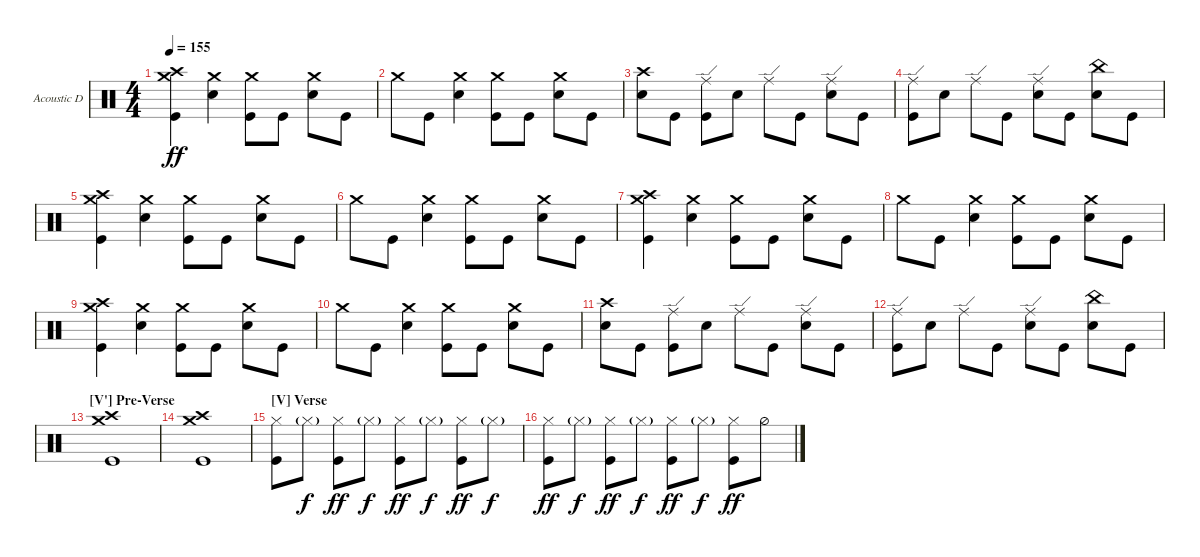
\defaultSystemsLayout 4
\bracketExtendMode groupsimilarinstruments
\firstSystemTrackNameOrientation horizontal
\otherSystemsTrackNameOrientation horizontal
\track ("Acoustic Drums" "Acoustic D") {instrument percussion}
\staff {score}
\articulation defaults
\ts (4 4)
\tempo 155
\clef neutral
\ks c
("Crash medium (hit)" "Kick (hit)" "Crash high (hit)").4{dy ff} ("Crash medium (hit)" "Snare (hit) 2").4 ("Crash medium (hit)" "Kick (hit)").8 "Kick (hit)".8 ("Crash medium (hit)" "Snare (hit) 2").8 "Kick (hit)".8 |
"Crash medium (hit)".8 "Kick (hit)".8 ("Crash medium (hit)" "Snare (hit) 2").4 ("Crash medium (hit)" "Kick (hit)").8 "Kick (hit)".8 ("Crash medium (hit)" "Snare (hit) 2").8 "Kick (hit)".8 |
("Crash high (hit)" "Snare (hit) 2").8 "Kick (hit)".8 ("Ride (edge)" "Kick (hit)").8 "Snare (hit) 2".8 "Ride (edge)".8 "Kick (hit)".8 ("Ride (edge)" "Snare (hit) 2").8 "Kick (hit)".8 |
("Ride (edge)" "Kick (hit)").8 "Snare (hit) 2".8 "Ride (edge)".8 "Kick (hit)".8 ("Ride (edge)" "Snare (hit) 2").8 "Kick (hit)".8 ("Snare (hit) 2" "China (hit)").8 "Kick (hit)".8 |
("Crash high (hit)" "Crash medium (hit)" "Kick (hit)").4 ("Crash medium (hit)" "Snare (hit) 2").4 ("Crash medium (hit)" "Kick (hit)").8 "Kick (hit)".8 ("Crash medium (hit)" "Snare (hit) 2").8 "Kick (hit)".8 |
"Crash medium (hit)".8 "Kick (hit)".8 ("Crash medium (hit)" "Snare (hit) 2").4 ("Crash medium (hit)" "Kick (hit)").8 "Kick (hit)".8 ("Crash medium (hit)" "Snare (hit) 2").8 "Kick (hit)".8 |
("Crash medium (hit)" "Kick (hit)" "Crash high (hit)").4 ("Crash medium (hit)" "Snare (hit) 2").4 ("Crash medium (hit)" "Kick (hit)").8 "Kick (hit)".8 ("Crash medium (hit)" "Snare (hit) 2").8 "Kick (hit)".8 |
"Crash medium (hit)".8 "Kick (hit)".8 ("Crash medium (hit)" "Snare (hit) 2").4 ("Crash medium (hit)" "Kick (hit)").8 "Kick (hit)".8 ("Crash medium (hit)" "Snare (hit) 2").8 "Kick (hit)".8 |
("Crash medium (hit)" "Kick (hit)" "Crash high (hit)").4 ("Crash medium (hit)" "Snare (hit) 2").4 ("Crash medium (hit)" "Kick (hit)").8 "Kick (hit)".8 ("Crash medium (hit)" "Snare (hit) 2").8 "Kick (hit)".8 |
"Crash medium (hit)".8 "Kick (hit)".8 ("Crash medium (hit)" "Snare (hit) 2").4 ("Crash medium (hit)" "Kick (hit)").8 "Kick (hit)".8 ("Crash medium (hit)" "Snare (hit) 2").8 "Kick (hit)".8 |
("Crash high (hit)" "Snare (hit) 2").8 "Kick (hit)".8 ("Ride (edge)" "Kick (hit)").8 "Snare (hit) 2".8 "Ride (edge)".8 "Kick (hit)".8 ("Ride (edge)" "Snare (hit) 2").8 "Kick (hit)".8 |
("Ride (edge)" "Kick (hit)").8 "Snare (hit) 2".8 "Ride (edge)".8 "Kick (hit)".8 ("Ride (edge)" "Snare (hit) 2").8 "Kick (hit)".8 ("Snare (hit) 2" "China (hit)").8 "Kick (hit)".8 |
\section ("V'" "Pre-Verse")
("Kick (hit)" "Crash high (hit)" "Crash medium (hit)").1 |
("Kick (hit)" "Crash high (hit)" "Crash medium (hit)").1 |
\section ("V" "Verse")
("Kick (hit)" "Hi-Hat (closed)").8 "Hi-Hat (closed)"{g}.8{dy f} ("Kick (hit)" "Hi-Hat (closed)").8{dy ff} "Hi-Hat (closed)"{g}.8{dy f} ("Kick (hit)" "Hi-Hat (closed)").8{dy ff} "Hi-Hat (closed)"{g}.8{dy f} ("Kick (hit)" "Hi-Hat (closed)").8{dy ff} "Hi-Hat (closed)"{g}.8{dy f} |
("Kick (hit)" "Hi-Hat (closed)").8{dy ff} "Hi-Hat (closed)"{g}.8{dy f} ("Kick (hit)" "Hi-Hat (closed)").8{dy ff} "Hi-Hat (closed)"{g}.8{dy f} ("Kick (hit)" "Hi-Hat (closed)").8{dy ff} "Hi-Hat (closed)"{g}.8{dy f} ("Kick (hit)" "Hi-Hat (closed)").8{dy ff} "Hi-Hat (half)".8
